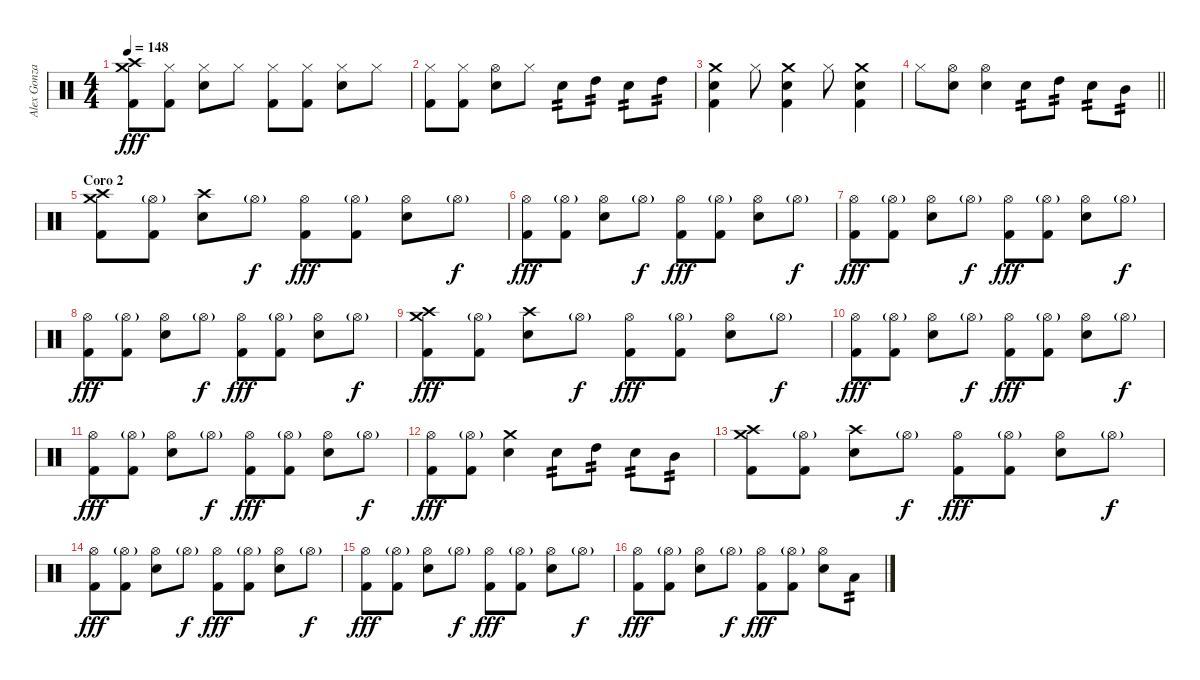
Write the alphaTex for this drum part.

\track ("Alex Gonzalez" "Alex Gonza") {instrument percussion}
\staff {score}
\articulation defaults
\ts (4 4)
\tempo 148
\clef neutral
\ks c
("Crash medium (hit)" "Crash high (hit)" "Kick (hit) 2").8{dy fff} ("Hi-Hat (closed)" "Kick (hit) 2").8 ("Hi-Hat (closed)" "Snare (hit) 2").8 "Hi-Hat (closed)".8 ("Hi-Hat (closed)" "Kick (hit) 2").8 ("Hi-Hat (closed)" "Kick (hit) 2").8 ("Hi-Hat (closed)" "Snare (hit) 2").8 "Hi-Hat (closed)".8 |
("Hi-Hat (closed)" "Kick (hit) 2").8 ("Hi-Hat (closed)" "Kick (hit) 2").8 ("Hi-Hat (open)" "Snare (hit) 2").8 "Hi-Hat (closed)".8 "Snare (hit) 2".8{tp 2} "High Tom (hit)".8{tp 2} "Snare (hit) 2".8{tp 2} "High Tom (hit)".8{tp 2} |
("Crash medium (hit)" "Snare (hit) 2" "Kick (hit) 2").4 "Hi-Hat (closed)".8 ("Crash medium (hit)" "Snare (hit) 2" "Kick (hit) 2").4 "Hi-Hat (closed)".8 ("Crash medium (hit)" "Snare (hit) 2" "Kick (hit) 2").4 |
\barLineRight lightlight "Hi-Hat (closed)".8
("Hi-Hat (open)" "Snare (hit) 2").8 ("Hi-Hat (open)" "Snare (hit) 2").4 "Snare (hit) 2".8{tp 2} "High Tom (hit)".8{tp 2} "Snare (hit) 2".8{tp 2} "Mid Tom (hit)".8{tp 2} |
\section ("" "Coro 2")
("Crash medium (hit)" "Crash high (hit)" "Kick (hit) 2").8 ("Hi-Hat (open)"{g} "Kick (hit) 2").8 ("Crash high (hit)" "Snare (hit) 2").8 "Hi-Hat (open)"{g}.8{dy f} ("Hi-Hat (open)" "Kick (hit) 2").8{dy fff} ("Hi-Hat (open)"{g} "Kick (hit) 2").8 ("Hi-Hat (open)" "Snare (hit) 2").8 "Hi-Hat (open)"{g}.8{dy f} |
("Hi-Hat (open)" "Kick (hit) 2").8{dy fff} ("Hi-Hat (open)"{g} "Kick (hit) 2").8 ("Hi-Hat (open)" "Snare (hit) 2").8 "Hi-Hat (open)"{g}.8{dy f} ("Hi-Hat (open)" "Kick (hit) 2").8{dy fff} ("Hi-Hat (open)"{g} "Kick (hit) 2").8 ("Hi-Hat (open)" "Snare (hit) 2").8 "Hi-Hat (open)"{g}.8{dy f} |
("Hi-Hat (open)" "Kick (hit) 2").8{dy fff} ("Hi-Hat (open)"{g} "Kick (hit) 2").8 ("Hi-Hat (open)" "Snare (hit) 2").8 "Hi-Hat (open)"{g}.8{dy f} ("Hi-Hat (open)" "Kick (hit) 2").8{dy fff} ("Hi-Hat (open)"{g} "Kick (hit) 2").8 ("Hi-Hat (open)" "Snare (hit) 2").8 "Hi-Hat (open)"{g}.8{dy f} |
("Hi-Hat (open)" "Kick (hit) 2").8{dy fff} ("Hi-Hat (open)"{g} "Kick (hit) 2").8 ("Hi-Hat (open)" "Snare (hit) 2").8 "Hi-Hat (open)"{g}.8{dy f} ("Hi-Hat (open)" "Kick (hit) 2").8{dy fff} ("Hi-Hat (open)"{g} "Kick (hit) 2").8 ("Hi-Hat (open)" "Snare (hit) 2").8 "Hi-Hat (open)"{g}.8{dy f} |
("Crash medium (hit)" "Crash high (hit)" "Kick (hit) 2").8{dy fff} ("Hi-Hat (open)"{g} "Kick (hit) 2").8 ("Crash high (hit)" "Snare (hit) 2").8 "Hi-Hat (open)"{g}.8{dy f} ("Hi-Hat (open)" "Kick (hit) 2").8{dy fff} ("Hi-Hat (open)"{g} "Kick (hit) 2").8 ("Hi-Hat (open)" "Snare (hit) 2").8 "Hi-Hat (open)"{g}.8{dy f} |
("Hi-Hat (open)" "Kick (hit) 2").8{dy fff} ("Hi-Hat (open)"{g} "Kick (hit) 2").8 ("Hi-Hat (open)" "Snare (hit) 2").8 "Hi-Hat (open)"{g}.8{dy f} ("Hi-Hat (open)" "Kick (hit) 2").8{dy fff} ("Hi-Hat (open)"{g} "Kick (hit) 2").8 ("Hi-Hat (open)" "Snare (hit) 2").8 "Hi-Hat (open)"{g}.8{dy f} |
("Hi-Hat (open)" "Kick (hit) 2").8{dy fff} ("Hi-Hat (open)"{g} "Kick (hit) 2").8 ("Hi-Hat (open)" "Snare (hit) 2").8 "Hi-Hat (open)"{g}.8{dy f} ("Hi-Hat (open)" "Kick (hit) 2").8{dy fff} ("Hi-Hat (open)"{g} "Kick (hit) 2").8 ("Hi-Hat (open)" "Snare (hit) 2").8 "Hi-Hat (open)"{g}.8{dy f} |
("Hi-Hat (open)" "Kick (hit) 2").8{dy fff} ("Hi-Hat (open)"{g} "Kick (hit) 2").8 ("Crash medium (hit)" "Snare (hit) 2").4 "Snare (hit) 2".8{tp 2} "High Tom (hit)".8{tp 2} "Snare (hit) 2".8{tp 2} "Mid Tom (hit)".8{tp 2} |
("Crash medium (hit)" "Crash high (hit)" "Kick (hit) 2").8 ("Hi-Hat (open)"{g} "Kick (hit) 2").8 ("Crash high (hit)" "Snare (hit) 2").8 "Hi-Hat (open)"{g}.8{dy f} ("Hi-Hat (open)" "Kick (hit) 2").8{dy fff} ("Hi-Hat (open)"{g} "Kick (hit) 2").8 ("Hi-Hat (open)" "Snare (hit) 2").8 "Hi-Hat (open)"{g}.8{dy f} |
("Hi-Hat (open)" "Kick (hit) 2").8{dy fff} ("Hi-Hat (open)"{g} "Kick (hit) 2").8 ("Hi-Hat (open)" "Snare (hit) 2").8 "Hi-Hat (open)"{g}.8{dy f} ("Hi-Hat (open)" "Kick (hit) 2").8{dy fff} ("Hi-Hat (open)"{g} "Kick (hit) 2").8 ("Hi-Hat (open)" "Snare (hit) 2").8 "Hi-Hat (open)"{g}.8{dy f} |
("Hi-Hat (open)" "Kick (hit) 2").8{dy fff} ("Hi-Hat (open)"{g} "Kick (hit) 2").8 ("Hi-Hat (open)" "Snare (hit) 2").8 "Hi-Hat (open)"{g}.8{dy f} ("Hi-Hat (open)" "Kick (hit) 2").8{dy fff} ("Hi-Hat (open)"{g} "Kick (hit) 2").8 ("Hi-Hat (open)" "Snare (hit) 2").8 "Hi-Hat (open)"{g}.8{dy f} |
("Hi-Hat (open)" "Kick (hit) 2").8{dy fff} ("Hi-Hat (open)"{g} "Kick (hit) 2").8 ("Hi-Hat (open)" "Snare (hit) 2").8 "Hi-Hat (open)"{g}.8{dy f} ("Hi-Hat (open)" "Kick (hit) 2").8{dy fff} ("Hi-Hat (open)"{g} "Kick (hit) 2").8 ("Hi-Hat (open)" "Snare (hit) 2").8 "Low Tom (hit)".8{tp 2}
